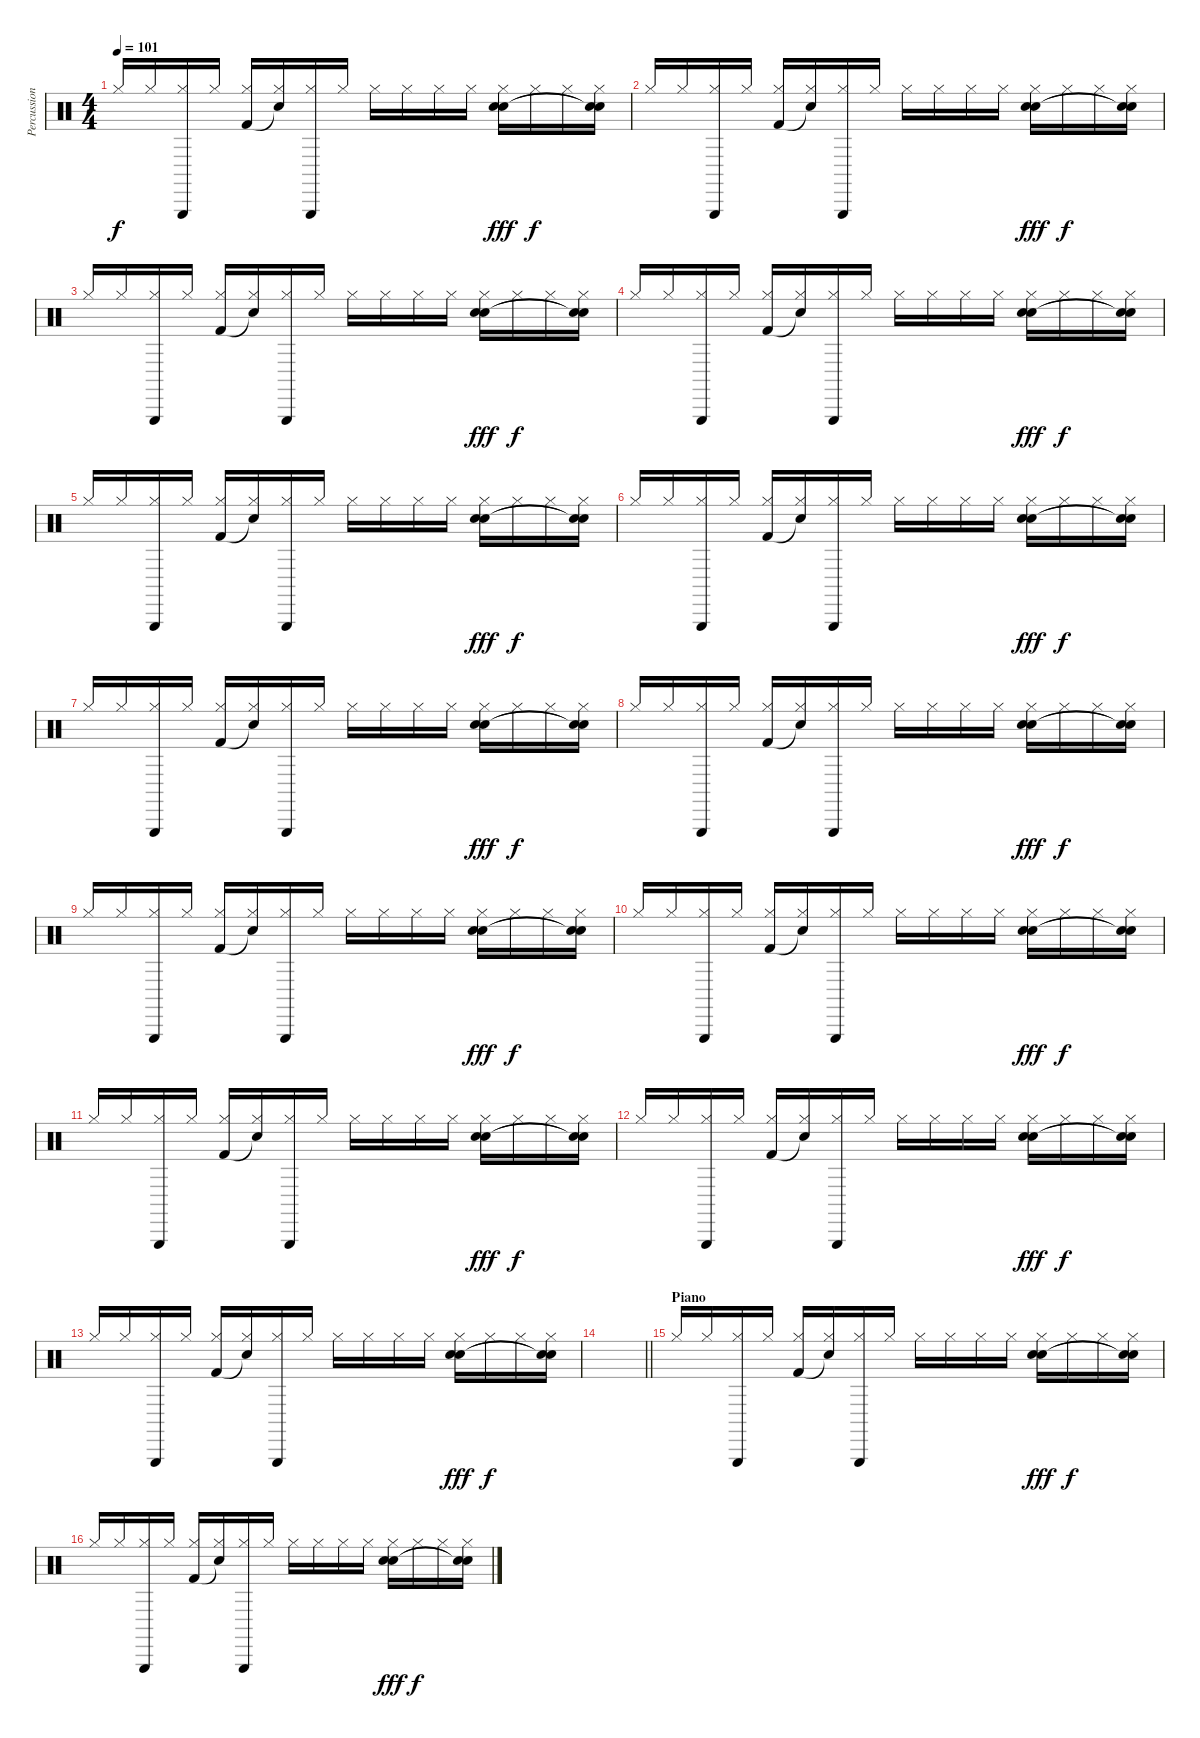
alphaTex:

\track ("Percussions" "Percussion") {instrument percussion}
\staff {score}
\articulation defaults
\ts (4 4)
\tempo 101
\clef neutral
\ks c "Hi-Hat (closed)".16{dy f} "Hi-Hat (closed)".16
("Hi-Hat (closed)" "Triangle (hit)").16 "Hi-Hat (closed)".16 ("Hi-Hat (closed)" "Kick (hit) 2").16 ("Hi-Hat (closed)" "Snare (hit)"{t}).16 ("Hi-Hat (closed)" "Triangle (hit)").16 "Hi-Hat (closed)".16 "Hi-Hat (closed)".16 "Hi-Hat (closed)".16 "Hi-Hat (closed)".16 "Hi-Hat (closed)".16 ("Hi-Hat (closed)" "Hand Clap (hit)" "Snare (hit) 2").16{dy fff} "Hi-Hat (closed)".16{dy f} "Hi-Hat (closed)".16 ("Hi-Hat (closed)" "Snare (hit)"{t} "Snare (hit)"{t}).16 |
"Hi-Hat (closed)".16 "Hi-Hat (closed)".16 ("Hi-Hat (closed)" "Triangle (hit)").16 "Hi-Hat (closed)".16 ("Hi-Hat (closed)" "Kick (hit) 2").16 ("Hi-Hat (closed)" "Snare (hit)"{t}).16 ("Hi-Hat (closed)" "Triangle (hit)").16 "Hi-Hat (closed)".16 "Hi-Hat (closed)".16 "Hi-Hat (closed)".16 "Hi-Hat (closed)".16 "Hi-Hat (closed)".16 ("Hi-Hat (closed)" "Hand Clap (hit)" "Snare (hit) 2").16{dy fff} "Hi-Hat (closed)".16{dy f} "Hi-Hat (closed)".16 ("Hi-Hat (closed)" "Snare (hit)"{t} "Snare (hit)"{t}).16 |
"Hi-Hat (closed)".16 "Hi-Hat (closed)".16 ("Hi-Hat (closed)" "Triangle (hit)").16 "Hi-Hat (closed)".16 ("Hi-Hat (closed)" "Kick (hit) 2").16 ("Hi-Hat (closed)" "Snare (hit)"{t}).16 ("Hi-Hat (closed)" "Triangle (hit)").16 "Hi-Hat (closed)".16 "Hi-Hat (closed)".16 "Hi-Hat (closed)".16 "Hi-Hat (closed)".16 "Hi-Hat (closed)".16 ("Hi-Hat (closed)" "Hand Clap (hit)" "Snare (hit) 2").16{dy fff} "Hi-Hat (closed)".16{dy f} "Hi-Hat (closed)".16 ("Hi-Hat (closed)" "Snare (hit)"{t} "Snare (hit)"{t}).16 |
"Hi-Hat (closed)".16 "Hi-Hat (closed)".16 ("Hi-Hat (closed)" "Triangle (hit)").16 "Hi-Hat (closed)".16 ("Hi-Hat (closed)" "Kick (hit) 2").16 ("Hi-Hat (closed)" "Snare (hit)"{t}).16 ("Hi-Hat (closed)" "Triangle (hit)").16 "Hi-Hat (closed)".16 "Hi-Hat (closed)".16 "Hi-Hat (closed)".16 "Hi-Hat (closed)".16 "Hi-Hat (closed)".16 ("Hi-Hat (closed)" "Hand Clap (hit)" "Snare (hit) 2").16{dy fff} "Hi-Hat (closed)".16{dy f} "Hi-Hat (closed)".16 ("Hi-Hat (closed)" "Snare (hit)"{t} "Snare (hit)"{t}).16 |
"Hi-Hat (closed)".16 "Hi-Hat (closed)".16 ("Hi-Hat (closed)" "Triangle (hit)").16 "Hi-Hat (closed)".16 ("Hi-Hat (closed)" "Kick (hit) 2").16 ("Hi-Hat (closed)" "Snare (hit)"{t}).16 ("Hi-Hat (closed)" "Triangle (hit)").16 "Hi-Hat (closed)".16 "Hi-Hat (closed)".16 "Hi-Hat (closed)".16 "Hi-Hat (closed)".16 "Hi-Hat (closed)".16 ("Hi-Hat (closed)" "Hand Clap (hit)" "Snare (hit) 2").16{dy fff} "Hi-Hat (closed)".16{dy f} "Hi-Hat (closed)".16 ("Hi-Hat (closed)" "Snare (hit)"{t} "Snare (hit)"{t}).16 |
"Hi-Hat (closed)".16 "Hi-Hat (closed)".16 ("Hi-Hat (closed)" "Triangle (hit)").16 "Hi-Hat (closed)".16 ("Hi-Hat (closed)" "Kick (hit) 2").16 ("Hi-Hat (closed)" "Snare (hit)"{t}).16 ("Hi-Hat (closed)" "Triangle (hit)").16 "Hi-Hat (closed)".16 "Hi-Hat (closed)".16 "Hi-Hat (closed)".16 "Hi-Hat (closed)".16 "Hi-Hat (closed)".16 ("Hi-Hat (closed)" "Hand Clap (hit)" "Snare (hit) 2").16{dy fff} "Hi-Hat (closed)".16{dy f} "Hi-Hat (closed)".16 ("Hi-Hat (closed)" "Snare (hit)"{t} "Snare (hit)"{t}).16 |
"Hi-Hat (closed)".16 "Hi-Hat (closed)".16 ("Hi-Hat (closed)" "Triangle (hit)").16 "Hi-Hat (closed)".16 ("Hi-Hat (closed)" "Kick (hit) 2").16 ("Hi-Hat (closed)" "Snare (hit)"{t}).16 ("Hi-Hat (closed)" "Triangle (hit)").16 "Hi-Hat (closed)".16 "Hi-Hat (closed)".16 "Hi-Hat (closed)".16 "Hi-Hat (closed)".16 "Hi-Hat (closed)".16 ("Hi-Hat (closed)" "Hand Clap (hit)" "Snare (hit) 2").16{dy fff} "Hi-Hat (closed)".16{dy f} "Hi-Hat (closed)".16 ("Hi-Hat (closed)" "Snare (hit)"{t} "Snare (hit)"{t}).16 |
"Hi-Hat (closed)".16 "Hi-Hat (closed)".16 ("Hi-Hat (closed)" "Triangle (hit)").16 "Hi-Hat (closed)".16 ("Hi-Hat (closed)" "Kick (hit) 2").16 ("Hi-Hat (closed)" "Snare (hit)"{t}).16 ("Hi-Hat (closed)" "Triangle (hit)").16 "Hi-Hat (closed)".16 "Hi-Hat (closed)".16 "Hi-Hat (closed)".16 "Hi-Hat (closed)".16 "Hi-Hat (closed)".16 ("Hi-Hat (closed)" "Hand Clap (hit)" "Snare (hit) 2").16{dy fff} "Hi-Hat (closed)".16{dy f} "Hi-Hat (closed)".16 ("Hi-Hat (closed)" "Snare (hit)"{t} "Snare (hit)"{t}).16 |
"Hi-Hat (closed)".16 "Hi-Hat (closed)".16 ("Hi-Hat (closed)" "Triangle (hit)").16 "Hi-Hat (closed)".16 ("Hi-Hat (closed)" "Kick (hit) 2").16 ("Hi-Hat (closed)" "Snare (hit)"{t}).16 ("Hi-Hat (closed)" "Triangle (hit)").16 "Hi-Hat (closed)".16 "Hi-Hat (closed)".16 "Hi-Hat (closed)".16 "Hi-Hat (closed)".16 "Hi-Hat (closed)".16 ("Hi-Hat (closed)" "Hand Clap (hit)" "Snare (hit) 2").16{dy fff} "Hi-Hat (closed)".16{dy f} "Hi-Hat (closed)".16 ("Hi-Hat (closed)" "Snare (hit)"{t} "Snare (hit)"{t}).16 |
"Hi-Hat (closed)".16 "Hi-Hat (closed)".16 ("Hi-Hat (closed)" "Triangle (hit)").16 "Hi-Hat (closed)".16 ("Hi-Hat (closed)" "Kick (hit) 2").16 ("Hi-Hat (closed)" "Snare (hit)"{t}).16 ("Hi-Hat (closed)" "Triangle (hit)").16 "Hi-Hat (closed)".16 "Hi-Hat (closed)".16 "Hi-Hat (closed)".16 "Hi-Hat (closed)".16 "Hi-Hat (closed)".16 ("Hi-Hat (closed)" "Hand Clap (hit)" "Snare (hit) 2").16{dy fff} "Hi-Hat (closed)".16{dy f} "Hi-Hat (closed)".16 ("Hi-Hat (closed)" "Snare (hit)"{t} "Snare (hit)"{t}).16 |
"Hi-Hat (closed)".16 "Hi-Hat (closed)".16 ("Hi-Hat (closed)" "Triangle (hit)").16 "Hi-Hat (closed)".16 ("Hi-Hat (closed)" "Kick (hit) 2").16 ("Hi-Hat (closed)" "Snare (hit)"{t}).16 ("Hi-Hat (closed)" "Triangle (hit)").16 "Hi-Hat (closed)".16 "Hi-Hat (closed)".16 "Hi-Hat (closed)".16 "Hi-Hat (closed)".16 "Hi-Hat (closed)".16 ("Hi-Hat (closed)" "Hand Clap (hit)" "Snare (hit) 2").16{dy fff} "Hi-Hat (closed)".16{dy f} "Hi-Hat (closed)".16 ("Hi-Hat (closed)" "Snare (hit)"{t} "Snare (hit)"{t}).16 |
"Hi-Hat (closed)".16 "Hi-Hat (closed)".16 ("Hi-Hat (closed)" "Triangle (hit)").16 "Hi-Hat (closed)".16 ("Hi-Hat (closed)" "Kick (hit) 2").16 ("Hi-Hat (closed)" "Snare (hit)"{t}).16 ("Hi-Hat (closed)" "Triangle (hit)").16 "Hi-Hat (closed)".16 "Hi-Hat (closed)".16 "Hi-Hat (closed)".16 "Hi-Hat (closed)".16 "Hi-Hat (closed)".16 ("Hi-Hat (closed)" "Hand Clap (hit)" "Snare (hit) 2").16{dy fff} "Hi-Hat (closed)".16{dy f} "Hi-Hat (closed)".16 ("Hi-Hat (closed)" "Snare (hit)"{t} "Snare (hit)"{t}).16 |
"Hi-Hat (closed)".16 "Hi-Hat (closed)".16 ("Hi-Hat (closed)" "Triangle (hit)").16 "Hi-Hat (closed)".16 ("Hi-Hat (closed)" "Kick (hit) 2").16 ("Hi-Hat (closed)" "Snare (hit)"{t}).16 ("Hi-Hat (closed)" "Triangle (hit)").16 "Hi-Hat (closed)".16 "Hi-Hat (closed)".16 "Hi-Hat (closed)".16 "Hi-Hat (closed)".16 "Hi-Hat (closed)".16 ("Hi-Hat (closed)" "Hand Clap (hit)" "Snare (hit) 2").16{dy fff} "Hi-Hat (closed)".16{dy f} "Hi-Hat (closed)".16 ("Hi-Hat (closed)" "Snare (hit)"{t} "Snare (hit)"{t}).16 |
\barLineRight lightlight
|
\section ("" "Piano")
"Hi-Hat (closed)".16 "Hi-Hat (closed)".16 ("Hi-Hat (closed)" "Triangle (hit)").16 "Hi-Hat (closed)".16 ("Hi-Hat (closed)" "Kick (hit) 2").16 ("Hi-Hat (closed)" "Snare (hit)"{t}).16 ("Hi-Hat (closed)" "Triangle (hit)").16 "Hi-Hat (closed)".16 "Hi-Hat (closed)".16 "Hi-Hat (closed)".16 "Hi-Hat (closed)".16 "Hi-Hat (closed)".16 ("Hi-Hat (closed)" "Hand Clap (hit)" "Snare (hit) 2").16{dy fff} "Hi-Hat (closed)".16{dy f} "Hi-Hat (closed)".16 ("Hi-Hat (closed)" "Snare (hit)"{t} "Snare (hit)"{t}).16 |
"Hi-Hat (closed)".16 "Hi-Hat (closed)".16 ("Hi-Hat (closed)" "Triangle (hit)").16 "Hi-Hat (closed)".16 ("Hi-Hat (closed)" "Kick (hit) 2").16 ("Hi-Hat (closed)" "Snare (hit)"{t}).16 ("Hi-Hat (closed)" "Triangle (hit)").16 "Hi-Hat (closed)".16 "Hi-Hat (closed)".16 "Hi-Hat (closed)".16 "Hi-Hat (closed)".16 "Hi-Hat (closed)".16 ("Hi-Hat (closed)" "Hand Clap (hit)" "Snare (hit) 2").16{dy fff} "Hi-Hat (closed)".16{dy f} "Hi-Hat (closed)".16 ("Hi-Hat (closed)" "Snare (hit)"{t} "Snare (hit)"{t}).16
